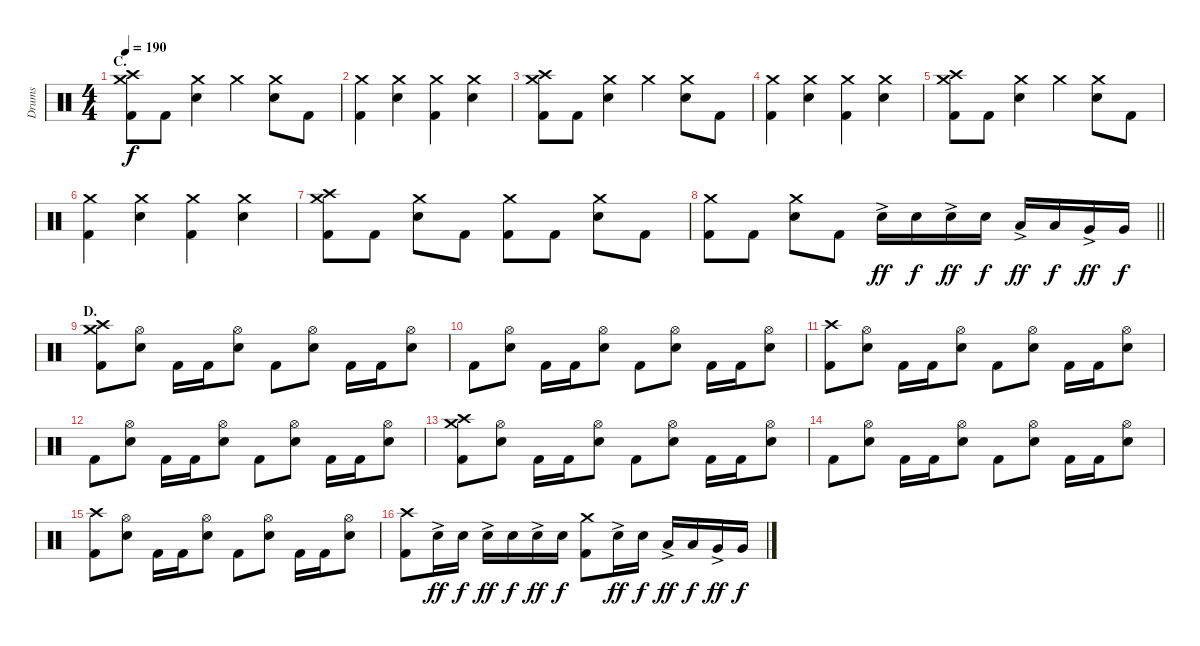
\track ("Drums" "Drums") {instrument percussion}
\staff {score}
\articulation defaults
\ts (4 4)
\section ("" "C.")
\tempo 190
\clef neutral
\ks c
("Crash medium (hit)" "Crash high (hit)" "Kick (hit) 2").8{dy f} "Kick (hit) 2".8 ("Crash medium (hit)" "Electric Snare (hit)").4 "Crash medium (hit)".4 ("Crash medium (hit)" "Electric Snare (hit)").8 "Kick (hit) 2".8 |
("Crash medium (hit)" "Kick (hit) 2").4 ("Crash medium (hit)" "Electric Snare (hit)").4 ("Crash medium (hit)" "Kick (hit) 2").4 ("Crash medium (hit)" "Electric Snare (hit)").4 |
("Crash medium (hit)" "Crash high (hit)" "Kick (hit) 2").8 "Kick (hit) 2".8 ("Crash medium (hit)" "Electric Snare (hit)").4 "Crash medium (hit)".4 ("Crash medium (hit)" "Electric Snare (hit)").8 "Kick (hit) 2".8 |
("Crash medium (hit)" "Kick (hit) 2").4 ("Crash medium (hit)" "Electric Snare (hit)").4 ("Crash medium (hit)" "Kick (hit) 2").4 ("Crash medium (hit)" "Electric Snare (hit)").4 |
("Crash medium (hit)" "Crash high (hit)" "Kick (hit) 2").8 "Kick (hit) 2".8 ("Crash medium (hit)" "Electric Snare (hit)").4 "Crash medium (hit)".4 ("Crash medium (hit)" "Electric Snare (hit)").8 "Kick (hit) 2".8 |
("Crash medium (hit)" "Kick (hit) 2").4 ("Crash medium (hit)" "Electric Snare (hit)").4 ("Crash medium (hit)" "Kick (hit) 2").4 ("Crash medium (hit)" "Electric Snare (hit)").4 |
("Crash medium (hit)" "Crash high (hit)" "Kick (hit) 2").8 "Kick (hit) 2".8 ("Crash medium (hit)" "Electric Snare (hit)").8 "Kick (hit) 2".8 ("Crash medium (hit)" "Kick (hit) 2").8 "Kick (hit) 2".8 ("Crash medium (hit)" "Electric Snare (hit)").8 "Kick (hit) 2".8 |
\barLineRight lightlight
("Crash medium (hit)" "Kick (hit) 2").8 "Kick (hit) 2".8 ("Crash medium (hit)" "Electric Snare (hit)").8 "Kick (hit) 2".8 "Electric Snare (hit)"{ac}.16{dy ff} "Electric Snare (hit)".16{dy f} "Electric Snare (hit)"{ac}.16{dy ff} "Electric Snare (hit)".16{dy f} "Low Tom (hit)"{ac}.16{dy ff} "Low Tom (hit)".16{dy f} "Very Low Tom (hit)"{ac}.16{dy ff} "Very Low Tom (hit)".16{dy f} |
\section ("" "D.")
("Crash medium (hit)" "Crash high (hit)" "Kick (hit) 2").8 ("Hi-Hat (open)" "Electric Snare (hit)").8 "Kick (hit) 2".16 "Kick (hit) 2".16 ("Hi-Hat (open)" "Electric Snare (hit)").8 "Kick (hit) 2".8 ("Hi-Hat (open)" "Electric Snare (hit)").8 "Kick (hit) 2".16 "Kick (hit) 2".16 ("Hi-Hat (open)" "Electric Snare (hit)").8 |
"Kick (hit) 2".8 ("Hi-Hat (open)" "Electric Snare (hit)").8 "Kick (hit) 2".16 "Kick (hit) 2".16 ("Hi-Hat (open)" "Electric Snare (hit)").8 "Kick (hit) 2".8 ("Hi-Hat (open)" "Electric Snare (hit)").8 "Kick (hit) 2".16 "Kick (hit) 2".16 ("Hi-Hat (open)" "Electric Snare (hit)").8 |
("Crash high (hit)" "Kick (hit) 2").8 ("Hi-Hat (open)" "Electric Snare (hit)").8 "Kick (hit) 2".16 "Kick (hit) 2".16 ("Hi-Hat (open)" "Electric Snare (hit)").8 "Kick (hit) 2".8 ("Hi-Hat (open)" "Electric Snare (hit)").8 "Kick (hit) 2".16 "Kick (hit) 2".16 ("Hi-Hat (open)" "Electric Snare (hit)").8 |
"Kick (hit) 2".8 ("Hi-Hat (open)" "Electric Snare (hit)").8 "Kick (hit) 2".16 "Kick (hit) 2".16 ("Hi-Hat (open)" "Electric Snare (hit)").8 "Kick (hit) 2".8 ("Hi-Hat (open)" "Electric Snare (hit)").8 "Kick (hit) 2".16 "Kick (hit) 2".16 ("Hi-Hat (open)" "Electric Snare (hit)").8 |
("Crash medium (hit)" "Crash high (hit)" "Kick (hit) 2").8 ("Hi-Hat (open)" "Electric Snare (hit)").8 "Kick (hit) 2".16 "Kick (hit) 2".16 ("Hi-Hat (open)" "Electric Snare (hit)").8 "Kick (hit) 2".8 ("Hi-Hat (open)" "Electric Snare (hit)").8 "Kick (hit) 2".16 "Kick (hit) 2".16 ("Hi-Hat (open)" "Electric Snare (hit)").8 |
"Kick (hit) 2".8 ("Hi-Hat (open)" "Electric Snare (hit)").8 "Kick (hit) 2".16 "Kick (hit) 2".16 ("Hi-Hat (open)" "Electric Snare (hit)").8 "Kick (hit) 2".8 ("Hi-Hat (open)" "Electric Snare (hit)").8 "Kick (hit) 2".16 "Kick (hit) 2".16 ("Hi-Hat (open)" "Electric Snare (hit)").8 |
("Crash high (hit)" "Kick (hit) 2").8 ("Hi-Hat (open)" "Electric Snare (hit)").8 "Kick (hit) 2".16 "Kick (hit) 2".16 ("Hi-Hat (open)" "Electric Snare (hit)").8 "Kick (hit) 2".8 ("Hi-Hat (open)" "Electric Snare (hit)").8 "Kick (hit) 2".16 "Kick (hit) 2".16 ("Hi-Hat (open)" "Electric Snare (hit)").8 |
("Crash high (hit)" "Kick (hit) 2").8 "Electric Snare (hit)"{ac}.16{dy ff} "Electric Snare (hit)".16{dy f} "Electric Snare (hit)"{ac}.16{dy ff} "Electric Snare (hit)".16{dy f} "Electric Snare (hit)"{ac}.16{dy ff} "Electric Snare (hit)".16{dy f} ("Crash medium (hit)" "Kick (hit) 2").8 "Electric Snare (hit)"{ac}.16{dy ff} "Electric Snare (hit)".16{dy f} "Low Tom (hit)"{ac}.16{dy ff} "Low Tom (hit)".16{dy f} "Very Low Tom (hit)"{ac}.16{dy ff} "Very Low Tom (hit)".16{dy f}
